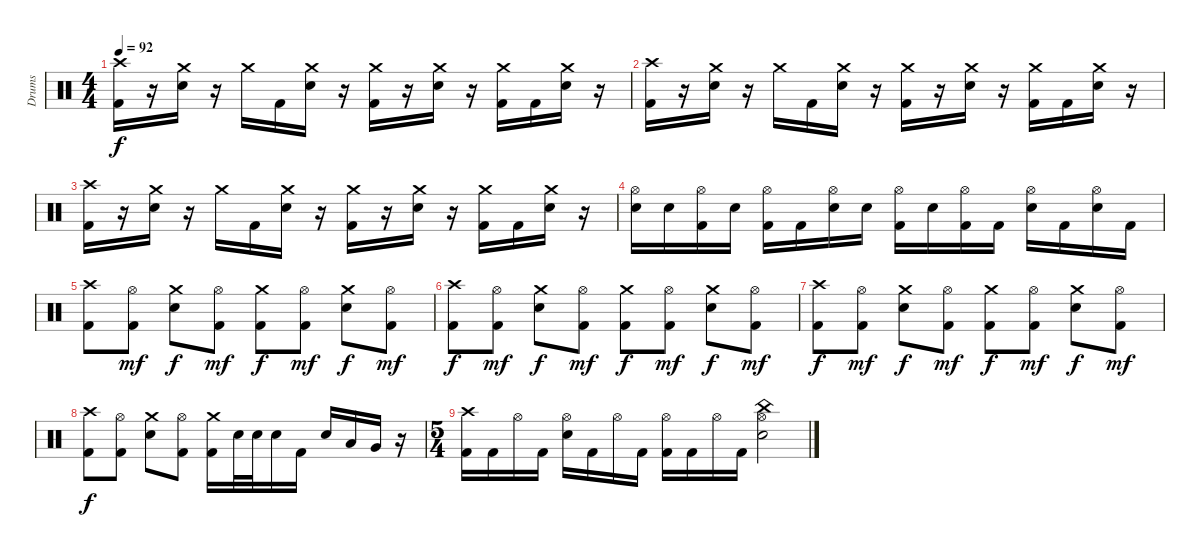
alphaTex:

\track ("Drums" "Drums") {instrument percussion}
\staff {score}
\articulation defaults
\ts (4 4)
\tempo 92
\clef neutral
\ks c
("Crash high (hit)" "Kick (hit) 2").16{dy f} r.16 ("Crash medium (hit)" "Electric Snare (hit)").16 r.16 "Crash medium (hit)".16 "Kick (hit) 2".16 ("Crash medium (hit)" "Electric Snare (hit)").16 r.16 ("Crash medium (hit)" "Kick (hit) 2").16 r.16 ("Crash medium (hit)" "Electric Snare (hit)").16 r.16 ("Crash medium (hit)" "Kick (hit) 2").16 "Kick (hit) 2".16 ("Crash medium (hit)" "Electric Snare (hit)").16 r.16 |
("Crash high (hit)" "Kick (hit) 2").16 r.16 ("Crash medium (hit)" "Electric Snare (hit)").16 r.16 "Crash medium (hit)".16 "Kick (hit) 2".16 ("Crash medium (hit)" "Electric Snare (hit)").16 r.16 ("Crash medium (hit)" "Kick (hit) 2").16 r.16 ("Crash medium (hit)" "Electric Snare (hit)").16 r.16 ("Crash medium (hit)" "Kick (hit) 2").16 "Kick (hit) 2".16 ("Crash medium (hit)" "Electric Snare (hit)").16 r.16 |
("Crash high (hit)" "Kick (hit) 2").16 r.16 ("Crash medium (hit)" "Electric Snare (hit)").16 r.16 "Crash medium (hit)".16 "Kick (hit) 2".16 ("Crash medium (hit)" "Electric Snare (hit)").16 r.16 ("Crash medium (hit)" "Kick (hit) 2").16 r.16 ("Crash medium (hit)" "Electric Snare (hit)").16 r.16 ("Crash medium (hit)" "Kick (hit) 2").16 "Kick (hit) 2".16 ("Crash medium (hit)" "Electric Snare (hit)").16 r.16 |
("Hi-Hat (open)" "Electric Snare (hit)").16 "Electric Snare (hit)".16 ("Hi-Hat (open)" "Kick (hit) 2").16 "Electric Snare (hit)".16 ("Hi-Hat (open)" "Kick (hit) 2").16 "Kick (hit) 2".16 ("Hi-Hat (open)" "Electric Snare (hit)").16 "Electric Snare (hit)".16 ("Hi-Hat (open)" "Kick (hit) 2").16 "Electric Snare (hit)".16 ("Hi-Hat (open)" "Kick (hit) 2").16 "Kick (hit) 2".16 ("Hi-Hat (open)" "Electric Snare (hit)").16 "Kick (hit) 2".16 ("Hi-Hat (open)" "Electric Snare (hit)").16 "Kick (hit) 2".16 |
("Crash high (hit)" "Kick (hit) 2").8 ("Hi-Hat (open)" "Kick (hit) 2").8{dy mf} ("Crash medium (hit)" "Electric Snare (hit)").8{dy f} ("Hi-Hat (open)" "Kick (hit) 2").8{dy mf} ("Crash medium (hit)" "Kick (hit) 2").8{dy f} ("Hi-Hat (open)" "Kick (hit) 2").8{dy mf} ("Crash medium (hit)" "Electric Snare (hit)").8{dy f} ("Hi-Hat (open)" "Kick (hit) 2").8{dy mf} |
("Crash high (hit)" "Kick (hit) 2").8{dy f} ("Hi-Hat (open)" "Kick (hit) 2").8{dy mf} ("Crash medium (hit)" "Electric Snare (hit)").8{dy f} ("Hi-Hat (open)" "Kick (hit) 2").8{dy mf} ("Crash medium (hit)" "Kick (hit) 2").8{dy f} ("Hi-Hat (open)" "Kick (hit) 2").8{dy mf} ("Crash medium (hit)" "Electric Snare (hit)").8{dy f} ("Hi-Hat (open)" "Kick (hit) 2").8{dy mf} |
("Crash high (hit)" "Kick (hit) 2").8{dy f} ("Hi-Hat (open)" "Kick (hit) 2").8{dy mf} ("Crash medium (hit)" "Electric Snare (hit)").8{dy f} ("Hi-Hat (open)" "Kick (hit) 2").8{dy mf} ("Crash medium (hit)" "Kick (hit) 2").8{dy f} ("Hi-Hat (open)" "Kick (hit) 2").8{dy mf} ("Crash medium (hit)" "Electric Snare (hit)").8{dy f} ("Hi-Hat (open)" "Kick (hit) 2").8{dy mf} |
("Crash high (hit)" "Kick (hit) 2").8{dy f} ("Hi-Hat (open)" "Kick (hit) 2").8 ("Crash medium (hit)" "Electric Snare (hit)").8 ("Hi-Hat (open)" "Kick (hit) 2").8 ("Crash medium (hit)" "Kick (hit) 2").16 "Electric Snare (hit)".32 "Electric Snare (hit)".32 "Electric Snare (hit)".16 "Kick (hit) 2".16 "Electric Snare (hit)".16 "Low Tom (hit)".16 "Very Low Tom (hit)".16 r.16 |
\ts (5 4)
("Crash high (hit)" "Kick (hit) 2").16 "Kick (hit) 2".16 "Hi-Hat (open)".16 "Kick (hit) 2".16 ("Hi-Hat (open)" "Electric Snare (hit)").16 "Kick (hit) 2".16 "Hi-Hat (open)".16 "Kick (hit) 2".16 ("Hi-Hat (open)" "Kick (hit) 2").16 "Kick (hit) 2".16 "Hi-Hat (open)".16 "Kick (hit) 2".16 ("China (hit)" "Hi-Hat (open)" "Electric Snare (hit)").2
